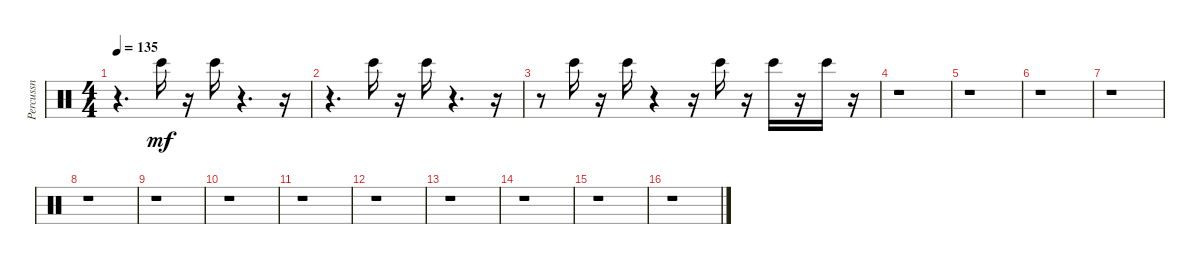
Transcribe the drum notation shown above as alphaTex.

\track ("Percussn" "Percussn") {instrument percussion}
\staff {score}
\articulation defaults
\ts (4 4)
\tempo 135
\clef neutral
\ks c
r.4{d dy mf} "Bongo High (hit)".16{balance 2} r.16 "Bongo High (hit)".16{balance 2} r.4{d} r.16 |
r.4{d} "Bongo High (hit)".16{balance 7} r.16 "Bongo High (hit)".16{balance 10} r.4{d} r.16 |
r.8 "Bongo High (hit)".16{balance 7} r.16 "Bongo High (hit)".16{balance 8} r.4 r.16 "Bongo High (hit)".16{balance 8} r.16 "Bongo High (hit)".16{balance 11} r.16 "Bongo High (hit)".16{balance 8} r.16 |
r.1 |
r.1 |
r.1 |
r.1 |
r.1 |
r.1 |
r.1 |
r.1 |
r.1 |
r.1 |
r.1 |
r.1 |
r.1
